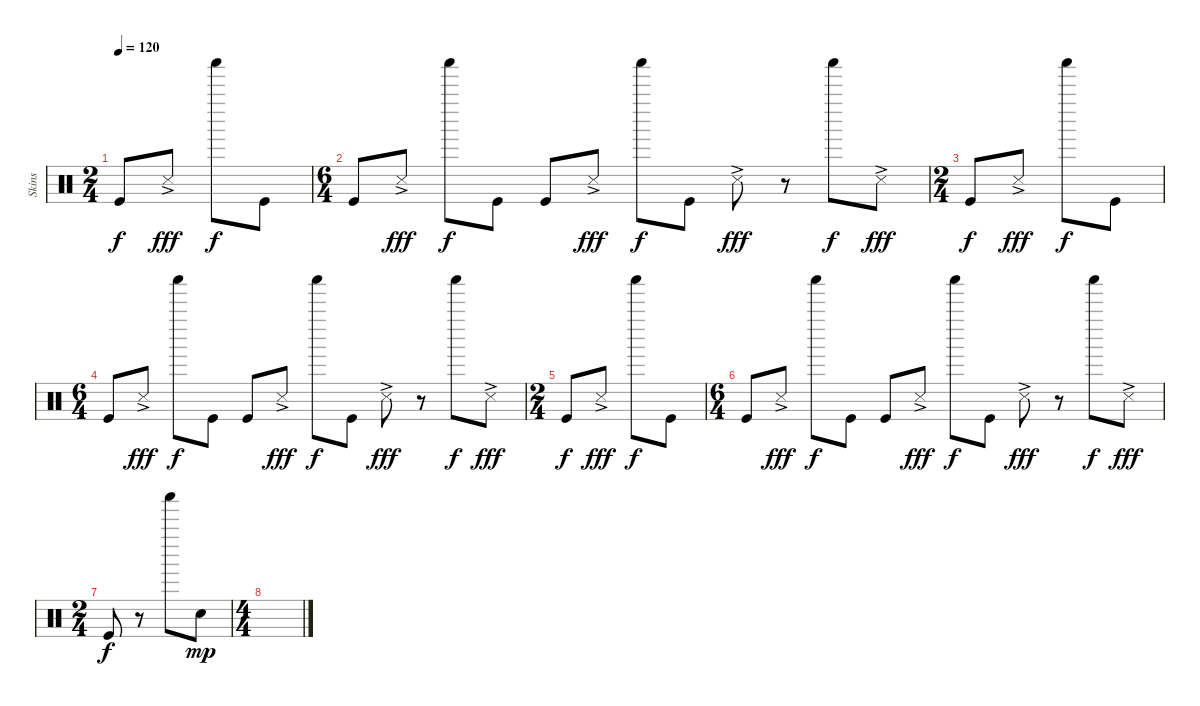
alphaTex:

\track ("Skins" "Skins") {instrument percussion}
\staff {score}
\articulation defaults
\ts (2 4)
\tempo 120
\clef neutral
\ks c "Kick (hit)".8{dy f} "Snare (side stick) 3"{ac}.8{dy fff} "Shaker (hit)".8{dy f} "Kick (hit)".8
|
\ts (6 4)
"Kick (hit)".8 "Snare (side stick) 3"{ac}.8{dy fff} "Shaker (hit)".8{dy f} "Kick (hit)".8 "Kick (hit)".8 "Snare (side stick) 3"{ac}.8{dy fff} "Shaker (hit)".8{dy f} "Kick (hit)".8 "Snare (side stick) 3"{ac}.8{dy fff} r.8 "Shaker (hit)".8{dy f} "Snare (side stick) 3"{ac}.8{dy fff} |
\ts (2 4)
"Kick (hit)".8{dy f} "Snare (side stick) 3"{ac}.8{dy fff} "Shaker (hit)".8{dy f} "Kick (hit)".8 |
\ts (6 4)
"Kick (hit)".8 "Snare (side stick) 3"{ac}.8{dy fff} "Shaker (hit)".8{dy f} "Kick (hit)".8 "Kick (hit)".8 "Snare (side stick) 3"{ac}.8{dy fff} "Shaker (hit)".8{dy f} "Kick (hit)".8 "Snare (side stick) 3"{ac}.8{dy fff} r.8 "Shaker (hit)".8{dy f} "Snare (side stick) 3"{ac}.8{dy fff} |
\ts (2 4)
"Kick (hit)".8{dy f} "Snare (side stick) 3"{ac}.8{dy fff} "Shaker (hit)".8{dy f} "Kick (hit)".8 |
\ts (6 4)
"Kick (hit)".8 "Snare (side stick) 3"{ac}.8{dy fff} "Shaker (hit)".8{dy f} "Kick (hit)".8 "Kick (hit)".8 "Snare (side stick) 3"{ac}.8{dy fff} "Shaker (hit)".8{dy f} "Kick (hit)".8 "Snare (side stick) 3"{ac}.8{dy fff} r.8 "Shaker (hit)".8{dy f} "Snare (side stick) 3"{ac}.8{dy fff} |
\ts (2 4)
"Kick (hit)".8{dy f} r.8 "Shaker (hit)".8 "Electric Snare (hit)".8{dy mp} |
\ts (4 4)
